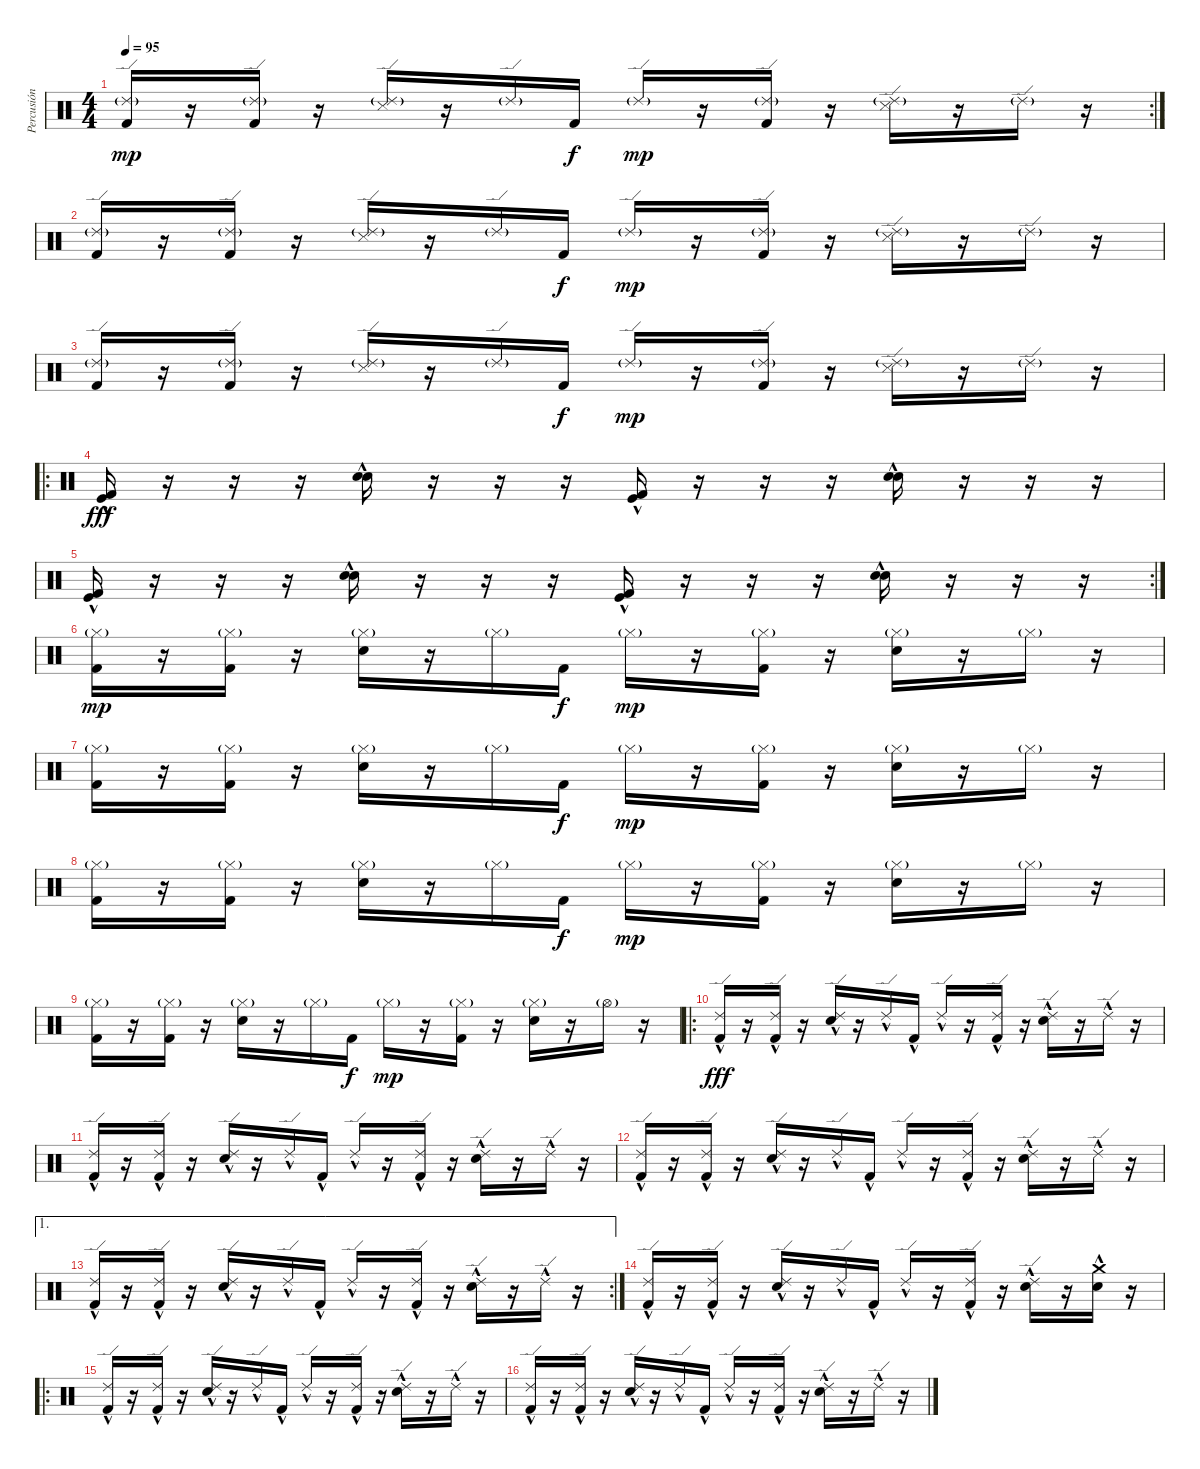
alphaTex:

\track ("Percusión" "Percusión") {instrument percussion}
\staff {score}
\articulation defaults
\rc 2
\ts (4 4)
\tempo 95
\clef neutral
\ks c
("Ride (edge) 2"{g} "Kick (hit) 2").16{dy mp} r.16 ("Ride (edge) 2"{g} "Kick (hit) 2").16 r.16 ("Ride (edge) 2"{g} "Snare (side stick) 3").16 r.16 "Ride (edge) 2"{g}.16 "Kick (hit) 2".16{dy f} "Ride (edge) 2"{g}.16{dy mp} r.16 ("Ride (edge) 2"{g} "Kick (hit) 2").16 r.16 ("Ride (edge) 2"{g} "Snare (side stick) 3").16 r.16 "Ride (edge) 2"{g}.16 r.16 |
("Ride (edge) 2"{g} "Kick (hit) 2").16 r.16 ("Ride (edge) 2"{g} "Kick (hit) 2").16 r.16 ("Ride (edge) 2"{g} "Snare (side stick) 3").16 r.16 "Ride (edge) 2"{g}.16 "Kick (hit) 2".16{dy f} "Ride (edge) 2"{g}.16{dy mp} r.16 ("Ride (edge) 2"{g} "Kick (hit) 2").16 r.16 ("Ride (edge) 2"{g} "Snare (side stick) 3").16 r.16 "Ride (edge) 2"{g}.16 r.16 |
("Ride (edge) 2"{g} "Kick (hit) 2").16 r.16 ("Ride (edge) 2"{g} "Kick (hit) 2").16 r.16 ("Ride (edge) 2"{g} "Snare (side stick) 3").16 r.16 "Ride (edge) 2"{g}.16 "Kick (hit) 2".16{dy f} "Ride (edge) 2"{g}.16{dy mp} r.16 ("Ride (edge) 2"{g} "Kick (hit) 2").16 r.16 ("Ride (edge) 2"{g} "Snare (side stick) 3").16 r.16 "Ride (edge) 2"{g}.16 r.16 |
\ro
("Kick (hit) 2"{hac} "Kick (hit)"{hac}).16{dy fff} r.16 r.16 r.16 ("Snare (hit) 2"{hac} "Electric Snare (hit)"{hac}).16 r.16 r.16 r.16 ("Kick (hit) 2"{hac} "Kick (hit)"{hac}).16 r.16 r.16 r.16 ("Snare (hit) 2"{hac} "Electric Snare (hit)"{hac}).16 r.16 r.16 r.16 |
\rc 2
("Kick (hit) 2"{hac} "Kick (hit)"{hac}).16 r.16 r.16 r.16 ("Snare (hit) 2"{hac} "Electric Snare (hit)"{hac}).16 r.16 r.16 r.16 ("Kick (hit) 2"{hac} "Kick (hit)"{hac}).16 r.16 r.16 r.16 ("Snare (hit) 2"{hac} "Electric Snare (hit)"{hac}).16 r.16 r.16 r.16 |
("Hi-Hat (closed)"{g} "Kick (hit) 2").16{dy mp} r.16 ("Hi-Hat (closed)"{g} "Kick (hit) 2").16 r.16 ("Hi-Hat (closed)"{g} "Electric Snare (hit)").16 r.16 "Hi-Hat (closed)"{g}.16 "Kick (hit) 2".16{dy f} "Hi-Hat (closed)"{g}.16{dy mp} r.16 ("Hi-Hat (closed)"{g} "Kick (hit) 2").16 r.16 ("Hi-Hat (closed)"{g} "Electric Snare (hit)").16 r.16 "Hi-Hat (closed)"{g}.16 r.16 |
("Hi-Hat (closed)"{g} "Kick (hit) 2").16 r.16 ("Hi-Hat (closed)"{g} "Kick (hit) 2").16 r.16 ("Hi-Hat (closed)"{g} "Electric Snare (hit)").16 r.16 "Hi-Hat (closed)"{g}.16 "Kick (hit) 2".16{dy f} "Hi-Hat (closed)"{g}.16{dy mp} r.16 ("Hi-Hat (closed)"{g} "Kick (hit) 2").16 r.16 ("Hi-Hat (closed)"{g} "Electric Snare (hit)").16 r.16 "Hi-Hat (closed)"{g}.16 r.16 |
("Hi-Hat (closed)"{g} "Kick (hit) 2").16 r.16 ("Hi-Hat (closed)"{g} "Kick (hit) 2").16 r.16 ("Hi-Hat (closed)"{g} "Electric Snare (hit)").16 r.16 "Hi-Hat (closed)"{g}.16 "Kick (hit) 2".16{dy f} "Hi-Hat (closed)"{g}.16{dy mp} r.16 ("Hi-Hat (closed)"{g} "Kick (hit) 2").16 r.16 ("Hi-Hat (closed)"{g} "Electric Snare (hit)").16 r.16 "Hi-Hat (closed)"{g}.16 r.16 |
("Hi-Hat (closed)"{g} "Kick (hit) 2").16 r.16 ("Hi-Hat (closed)"{g} "Kick (hit) 2").16 r.16 ("Hi-Hat (closed)"{g} "Electric Snare (hit)").16 r.16 "Hi-Hat (closed)"{g}.16 "Kick (hit) 2".16{dy f} "Hi-Hat (closed)"{g}.16{dy mp} r.16 ("Hi-Hat (closed)"{g} "Kick (hit) 2").16 r.16 ("Hi-Hat (closed)"{g} "Electric Snare (hit)").16 r.16 "Hi-Hat (open)"{g}.16 r.16 |
\ro
("Ride (edge) 2"{hac} "Kick (hit) 2"{hac}).16{dy fff} r.16 ("Ride (edge) 2"{hac} "Kick (hit) 2"{hac}).16 r.16 ("Ride (edge) 2"{hac} "Electric Snare (hit)"{hac}).16 r.16 "Ride (edge) 2"{hac}.16 "Kick (hit) 2"{hac}.16 "Ride (edge) 2"{hac}.16 r.16 ("Ride (edge) 2"{hac} "Kick (hit) 2"{hac}).16 r.16 ("Ride (edge) 2"{hac} "Electric Snare (hit)"{hac}).16 r.16 "Ride (edge) 2"{hac}.16 r.16 |
("Ride (edge) 2"{hac} "Kick (hit) 2"{hac}).16 r.16 ("Ride (edge) 2"{hac} "Kick (hit) 2"{hac}).16 r.16 ("Ride (edge) 2"{hac} "Electric Snare (hit)"{hac}).16 r.16 "Ride (edge) 2"{hac}.16 "Kick (hit) 2"{hac}.16 "Ride (edge) 2"{hac}.16 r.16 ("Ride (edge) 2"{hac} "Kick (hit) 2"{hac}).16 r.16 ("Ride (edge) 2"{hac} "Electric Snare (hit)"{hac}).16 r.16 "Ride (edge) 2"{hac}.16 r.16 |
("Ride (edge) 2"{hac} "Kick (hit) 2"{hac}).16 r.16 ("Ride (edge) 2"{hac} "Kick (hit) 2"{hac}).16 r.16 ("Ride (edge) 2"{hac} "Electric Snare (hit)"{hac}).16 r.16 "Ride (edge) 2"{hac}.16 "Kick (hit) 2"{hac}.16 "Ride (edge) 2"{hac}.16 r.16 ("Ride (edge) 2"{hac} "Kick (hit) 2"{hac}).16 r.16 ("Ride (edge) 2"{hac} "Electric Snare (hit)"{hac}).16 r.16 "Ride (edge) 2"{hac}.16 r.16 |
\ae 1
\rc 2
("Ride (edge) 2"{hac} "Kick (hit) 2"{hac}).16 r.16 ("Ride (edge) 2"{hac} "Kick (hit) 2"{hac}).16 r.16 ("Ride (edge) 2"{hac} "Electric Snare (hit)"{hac}).16 r.16 "Ride (edge) 2"{hac}.16 "Kick (hit) 2"{hac}.16 "Ride (edge) 2"{hac}.16 r.16 ("Ride (edge) 2"{hac} "Kick (hit) 2"{hac}).16 r.16 ("Ride (edge) 2"{hac} "Electric Snare (hit)"{hac}).16 r.16 "Ride (edge) 2"{hac}.16 r.16 |
("Ride (edge) 2"{hac} "Kick (hit) 2"{hac}).16 r.16 ("Ride (edge) 2"{hac} "Kick (hit) 2"{hac}).16 r.16 ("Ride (edge) 2"{hac} "Electric Snare (hit)"{hac}).16 r.16 "Ride (edge) 2"{hac}.16 "Kick (hit) 2"{hac}.16 "Ride (edge) 2"{hac}.16 r.16 ("Ride (edge) 2"{hac} "Kick (hit) 2"{hac}).16 r.16 ("Ride (edge) 2"{hac} "Electric Snare (hit)"{hac}).16 r.16 ("Crash medium (hit)"{hac} "Electric Snare (hit)"{hac}).16 r.16 |
\ro
("Ride (edge) 2"{hac} "Kick (hit) 2"{hac}).16 r.16 ("Ride (edge) 2"{hac} "Kick (hit) 2"{hac}).16 r.16 ("Ride (edge) 2"{hac} "Electric Snare (hit)"{hac}).16 r.16 "Ride (edge) 2"{hac}.16 "Kick (hit) 2"{hac}.16 "Ride (edge) 2"{hac}.16 r.16 ("Ride (edge) 2"{hac} "Kick (hit) 2"{hac}).16 r.16 ("Ride (edge) 2"{hac} "Electric Snare (hit)"{hac}).16 r.16 "Ride (edge) 2"{hac}.16 r.16 |
("Ride (edge) 2"{hac} "Kick (hit) 2"{hac}).16 r.16 ("Ride (edge) 2"{hac} "Kick (hit) 2"{hac}).16 r.16 ("Ride (edge) 2"{hac} "Electric Snare (hit)"{hac}).16 r.16 "Ride (edge) 2"{hac}.16 "Kick (hit) 2"{hac}.16 "Ride (edge) 2"{hac}.16 r.16 ("Ride (edge) 2"{hac} "Kick (hit) 2"{hac}).16 r.16 ("Ride (edge) 2"{hac} "Electric Snare (hit)"{hac}).16 r.16 "Ride (edge) 2"{hac}.16 r.16
